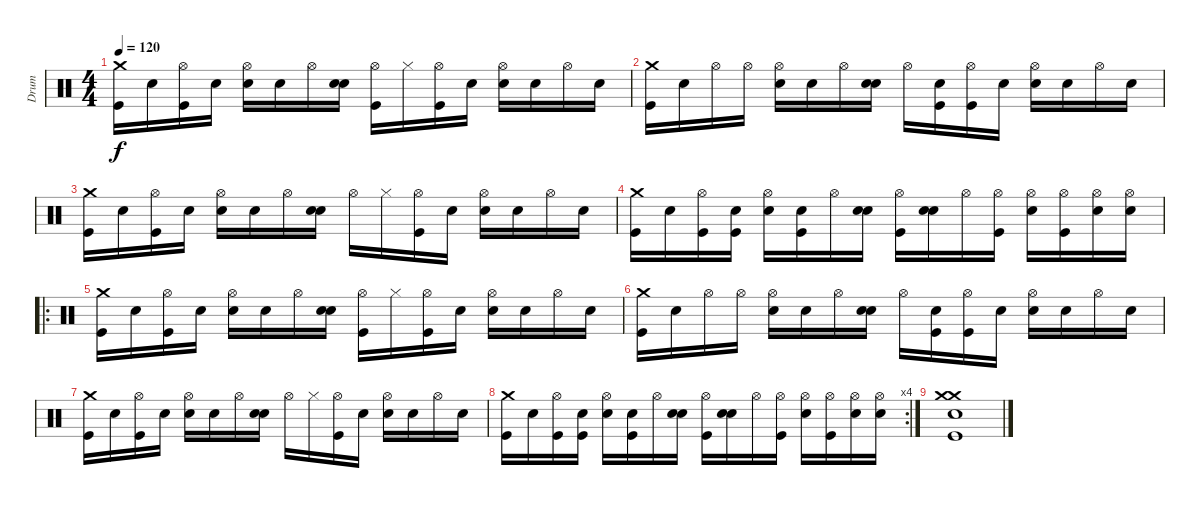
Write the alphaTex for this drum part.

\track ("Drum" "Drum") {instrument percussion}
\staff {score}
\articulation defaults
\ts (4 4)
\tempo 120
\clef neutral
\ks c
("Crash medium (hit)" "Kick (hit)").16{dy f} "Snare (hit)".16 ("Hi-Hat (open)" "Kick (hit)").16 "Snare (hit)".16 ("Hi-Hat (open)" "Electric Snare (hit)").16 "Snare (hit)".16 "Hi-Hat (open)".16 ("Snare (hit)" "Electric Snare (hit)").16 ("Hi-Hat (open)" "Kick (hit)").16 "Hi-Hat (closed)".16 ("Hi-Hat (open)" "Kick (hit)").16 "Snare (hit)".16 ("Hi-Hat (open)" "Electric Snare (hit)").16 "Snare (hit)".16 "Hi-Hat (open)".16 "Snare (hit)".16 |
("Crash medium (hit)" "Kick (hit)").16 "Snare (hit)".16 "Hi-Hat (open)".16 "Hi-Hat (open)".16 ("Hi-Hat (open)" "Electric Snare (hit)").16 "Snare (hit)".16 "Hi-Hat (open)".16 ("Snare (hit)" "Electric Snare (hit)").16 "Hi-Hat (open)".16 ("Snare (hit)" "Kick (hit)").16 ("Hi-Hat (open)" "Kick (hit)").16 "Snare (hit)".16 ("Hi-Hat (open)" "Electric Snare (hit)").16 "Snare (hit)".16 "Hi-Hat (open)".16 "Snare (hit)".16 |
("Crash medium (hit)" "Kick (hit)").16 "Snare (hit)".16 ("Hi-Hat (open)" "Kick (hit)").16 "Snare (hit)".16 ("Hi-Hat (open)" "Electric Snare (hit)").16 "Snare (hit)".16 "Hi-Hat (open)".16 ("Snare (hit)" "Electric Snare (hit)").16 "Hi-Hat (open)".16 "Hi-Hat (closed)".16 ("Hi-Hat (open)" "Kick (hit)").16 "Snare (hit)".16 ("Hi-Hat (open)" "Electric Snare (hit)").16 "Snare (hit)".16 "Hi-Hat (open)".16 "Snare (hit)".16 |
("Crash medium (hit)" "Kick (hit)").16 "Snare (hit)".16 ("Hi-Hat (open)" "Kick (hit)").16 ("Snare (hit)" "Kick (hit)").16 ("Hi-Hat (open)" "Electric Snare (hit)").16 ("Snare (hit)" "Kick (hit)").16 "Hi-Hat (open)".16 ("Snare (hit)" "Electric Snare (hit)").16 ("Hi-Hat (open)" "Kick (hit)").16 ("Snare (hit)" "Electric Snare (hit)").16 "Hi-Hat (open)".16 ("Hi-Hat (open)" "Kick (hit)").16 ("Hi-Hat (open)" "Electric Snare (hit)").16 ("Hi-Hat (open)" "Kick (hit)").16 ("Hi-Hat (open)" "Electric Snare (hit)").16 ("Hi-Hat (open)" "Electric Snare (hit)").16 |
\ro
("Crash medium (hit)" "Kick (hit)").16 "Snare (hit)".16 ("Hi-Hat (open)" "Kick (hit)").16 "Snare (hit)".16 ("Hi-Hat (open)" "Electric Snare (hit)").16 "Snare (hit)".16 "Hi-Hat (open)".16 ("Snare (hit)" "Electric Snare (hit)").16 ("Hi-Hat (open)" "Kick (hit)").16 "Hi-Hat (closed)".16 ("Hi-Hat (open)" "Kick (hit)").16 "Snare (hit)".16 ("Hi-Hat (open)" "Electric Snare (hit)").16 "Snare (hit)".16 "Hi-Hat (open)".16 "Snare (hit)".16 |
("Crash medium (hit)" "Kick (hit)").16 "Snare (hit)".16 "Hi-Hat (open)".16 "Hi-Hat (open)".16 ("Hi-Hat (open)" "Electric Snare (hit)").16 "Snare (hit)".16 "Hi-Hat (open)".16 ("Snare (hit)" "Electric Snare (hit)").16 "Hi-Hat (open)".16 ("Snare (hit)" "Kick (hit)").16 ("Hi-Hat (open)" "Kick (hit)").16 "Snare (hit)".16 ("Hi-Hat (open)" "Electric Snare (hit)").16 "Snare (hit)".16 "Hi-Hat (open)".16 "Snare (hit)".16 |
("Crash medium (hit)" "Kick (hit)").16 "Snare (hit)".16 ("Hi-Hat (open)" "Kick (hit)").16 "Snare (hit)".16 ("Hi-Hat (open)" "Electric Snare (hit)").16 "Snare (hit)".16 "Hi-Hat (open)".16 ("Snare (hit)" "Electric Snare (hit)").16 "Hi-Hat (open)".16 "Hi-Hat (closed)".16 ("Hi-Hat (open)" "Kick (hit)").16 "Snare (hit)".16 ("Hi-Hat (open)" "Electric Snare (hit)").16 "Snare (hit)".16 "Hi-Hat (open)".16 "Snare (hit)".16 |
\rc 4
("Crash medium (hit)" "Kick (hit)").16 "Snare (hit)".16 ("Hi-Hat (open)" "Kick (hit)").16 ("Snare (hit)" "Kick (hit)").16 ("Hi-Hat (open)" "Electric Snare (hit)").16 ("Snare (hit)" "Kick (hit)").16 "Hi-Hat (open)".16 ("Snare (hit)" "Electric Snare (hit)").16 ("Hi-Hat (open)" "Kick (hit)").16 ("Snare (hit)" "Electric Snare (hit)").16 "Hi-Hat (open)".16 ("Hi-Hat (open)" "Kick (hit)").16 ("Hi-Hat (open)" "Electric Snare (hit)").16 ("Hi-Hat (open)" "Kick (hit)").16 ("Hi-Hat (open)" "Electric Snare (hit)").16 ("Hi-Hat (open)" "Electric Snare (hit)").16 |
("Crash medium (hit)" "Crash medium (hit)" "Electric Snare (hit)" "Kick (hit)").1
